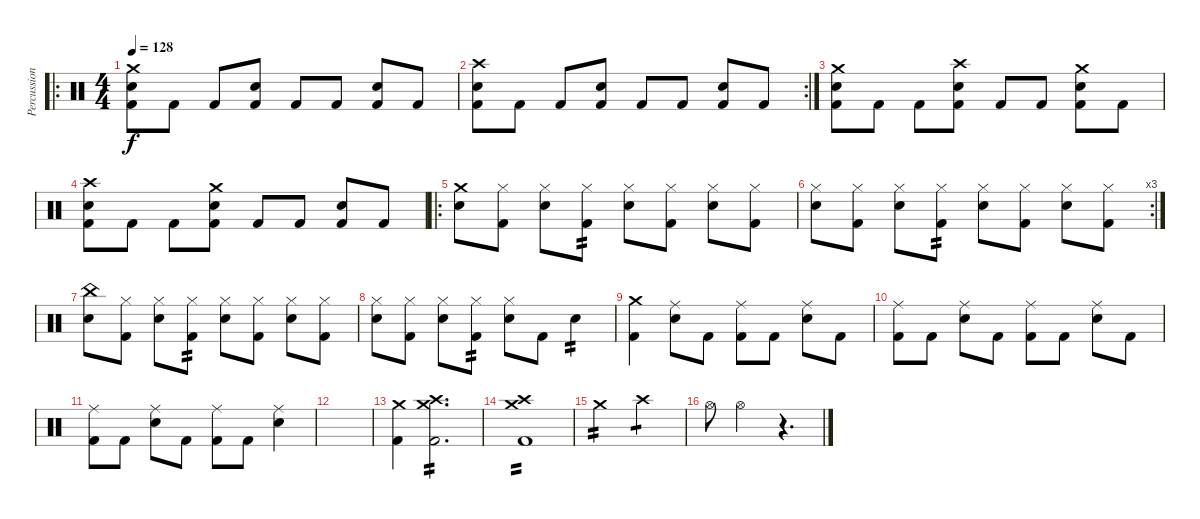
\track ("Percussion" "Percussion") {instrument percussion}
\staff {score}
\articulation defaults
\ro
\ts (4 4)
\tempo 128
\clef neutral
\ks c
("Crash medium (hit)" "Snare (hit) 2" "Kick (hit) 2").8{dy f} "Kick (hit) 2".8 "Kick (hit) 2".8 ("Snare (hit) 2" "Kick (hit) 2").8 "Kick (hit) 2".8 "Kick (hit) 2".8 ("Snare (hit) 2" "Kick (hit) 2").8 "Kick (hit) 2".8 |
\rc 2
("Crash high (hit)" "Snare (hit) 2" "Kick (hit) 2").8 "Kick (hit) 2".8 "Kick (hit) 2".8 ("Snare (hit) 2" "Kick (hit) 2").8 "Kick (hit) 2".8 "Kick (hit) 2".8 ("Snare (hit) 2" "Kick (hit) 2").8 "Kick (hit) 2".8 |
("Crash medium (hit)" "Snare (hit) 2" "Kick (hit) 2").8 "Kick (hit) 2".8 "Kick (hit) 2".8 ("Crash high (hit)" "Snare (hit) 2" "Kick (hit) 2").8 "Kick (hit) 2".8 "Kick (hit) 2".8 ("Crash medium (hit)" "Snare (hit) 2" "Kick (hit) 2").8 "Kick (hit) 2".8 |
("Crash high (hit)" "Snare (hit) 2" "Kick (hit) 2").8 "Kick (hit) 2".8 "Kick (hit) 2".8 ("Crash medium (hit)" "Snare (hit) 2" "Kick (hit) 2").8 "Kick (hit) 2".8 "Kick (hit) 2".8 ("Snare (hit) 2" "Kick (hit) 2").8 "Kick (hit) 2".8 |
\ro
("Crash medium (hit)" "Snare (hit) 2").8 ("Hi-Hat (closed)" "Kick (hit) 2").8 ("Hi-Hat (closed)" "Snare (hit) 2").8 ("Hi-Hat (closed)" "Kick (hit) 2").8{tp 2} ("Hi-Hat (closed)" "Snare (hit) 2").8 ("Hi-Hat (closed)" "Kick (hit) 2").8 ("Hi-Hat (closed)" "Snare (hit) 2").8 ("Hi-Hat (closed)" "Kick (hit) 2").8 |
\rc 3
("Hi-Hat (closed)" "Snare (hit) 2").8 ("Hi-Hat (closed)" "Kick (hit) 2").8 ("Hi-Hat (closed)" "Snare (hit) 2").8 ("Hi-Hat (closed)" "Kick (hit) 2").8{tp 2} ("Hi-Hat (closed)" "Snare (hit) 2").8 ("Hi-Hat (closed)" "Kick (hit) 2").8 ("Hi-Hat (closed)" "Snare (hit) 2").8 ("Hi-Hat (closed)" "Kick (hit) 2").8 |
("China (hit)" "Snare (hit) 2").8 ("Hi-Hat (closed)" "Kick (hit) 2").8 ("Hi-Hat (closed)" "Snare (hit) 2").8 ("Hi-Hat (closed)" "Kick (hit) 2").8{tp 2} ("Hi-Hat (closed)" "Snare (hit) 2").8 ("Hi-Hat (closed)" "Kick (hit) 2").8 ("Hi-Hat (closed)" "Snare (hit) 2").8 ("Hi-Hat (closed)" "Kick (hit) 2").8 |
("Hi-Hat (closed)" "Snare (hit) 2").8 ("Hi-Hat (closed)" "Kick (hit) 2").8 ("Hi-Hat (closed)" "Snare (hit) 2").8 ("Hi-Hat (closed)" "Kick (hit) 2").8{tp 2} ("Hi-Hat (closed)" "Snare (hit) 2").8 "Kick (hit) 2".8 "Snare (hit) 2".4{tp 2} |
("Crash medium (hit)" "Kick (hit) 2").4 ("Ride (middle)" "Snare (hit) 2").8 "Kick (hit) 2".8 ("Ride (middle)" "Kick (hit) 2").8 "Kick (hit) 2".8 ("Ride (middle)" "Snare (hit) 2").8 "Kick (hit) 2".8 |
("Ride (middle)" "Kick (hit) 2").8 "Kick (hit) 2".8 ("Ride (middle)" "Snare (hit) 2").8 "Kick (hit) 2".8 ("Ride (middle)" "Kick (hit) 2").8 "Kick (hit) 2".8 ("Ride (middle)" "Snare (hit) 2").8 "Kick (hit) 2".8 |
("Ride (middle)" "Kick (hit) 2").8 "Kick (hit) 2".8 ("Ride (middle)" "Snare (hit) 2").8 "Kick (hit) 2".8 ("Ride (middle)" "Kick (hit) 2").8 "Kick (hit) 2".8 ("Ride (middle)" "Snare (hit) 2").4 |
|
("Crash medium (hit)" "Kick (hit) 2").4 ("Crash medium (hit)" "Crash high (hit)" "Kick (hit) 2").2{d tp 2} |
("Crash medium (hit)" "Crash high (hit)" "Kick (hit) 2").1{tp 2} |
"Crash medium (hit)".2{tp 2} "Crash high (hit)".2{tp 1} |
"Hi-Hat (open)".8 "Hi-Hat (open)".2 r.4{d}
